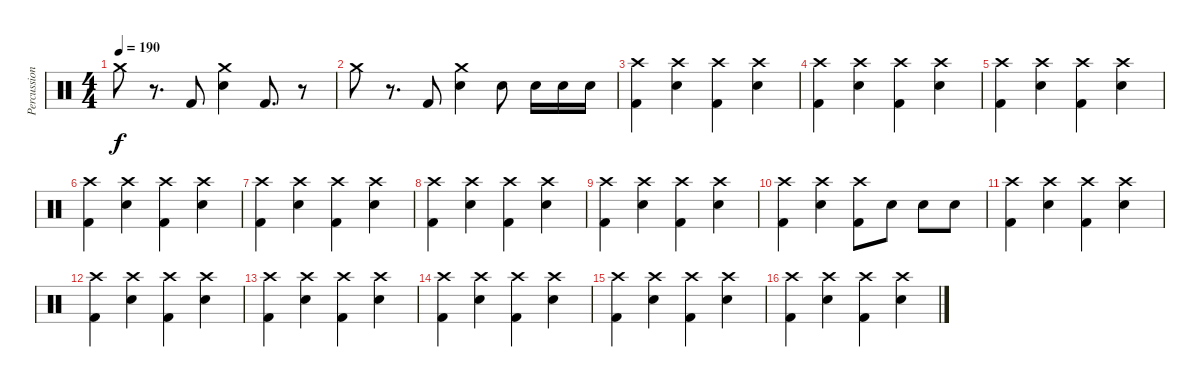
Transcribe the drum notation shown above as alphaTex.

\track ("Percussions" "Percussion") {instrument percussion}
\staff {score}
\articulation defaults
\ts (4 4)
\tempo 190
\clef neutral
\ks c "Crash medium (hit)".8{dy f}
r.8{d} "Kick (hit) 2".8 ("Crash medium (hit)" "Electric Snare (hit)").4 "Kick (hit) 2".8{d} r.8 |
"Crash medium (hit)".8 r.8{d} "Kick (hit) 2".8 ("Crash medium (hit)" "Electric Snare (hit)").4 "Electric Snare (hit)".8 "Electric Snare (hit)".16 "Electric Snare (hit)".16 "Electric Snare (hit)".16 |
("Crash high (hit)" "Kick (hit) 2").4 ("Crash high (hit)" "Electric Snare (hit)").4 ("Crash high (hit)" "Kick (hit) 2").4 ("Crash high (hit)" "Electric Snare (hit)").4 |
("Crash high (hit)" "Kick (hit) 2").4 ("Crash high (hit)" "Electric Snare (hit)").4 ("Crash high (hit)" "Kick (hit) 2").4 ("Crash high (hit)" "Electric Snare (hit)").4 |
("Crash high (hit)" "Kick (hit) 2").4 ("Crash high (hit)" "Electric Snare (hit)").4 ("Crash high (hit)" "Kick (hit) 2").4 ("Crash high (hit)" "Electric Snare (hit)").4 |
("Crash high (hit)" "Kick (hit) 2").4 ("Crash high (hit)" "Electric Snare (hit)").4 ("Crash high (hit)" "Kick (hit) 2").4 ("Crash high (hit)" "Electric Snare (hit)").4 |
("Crash high (hit)" "Kick (hit) 2").4 ("Crash high (hit)" "Electric Snare (hit)").4 ("Crash high (hit)" "Kick (hit) 2").4 ("Crash high (hit)" "Electric Snare (hit)").4 |
("Crash high (hit)" "Kick (hit) 2").4 ("Crash high (hit)" "Electric Snare (hit)").4 ("Crash high (hit)" "Kick (hit) 2").4 ("Crash high (hit)" "Electric Snare (hit)").4 |
("Crash high (hit)" "Kick (hit) 2").4 ("Crash high (hit)" "Electric Snare (hit)").4 ("Crash high (hit)" "Kick (hit) 2").4 ("Crash high (hit)" "Electric Snare (hit)").4 |
("Crash high (hit)" "Kick (hit) 2").4 ("Crash high (hit)" "Electric Snare (hit)").4 ("Crash high (hit)" "Kick (hit) 2").8 "Electric Snare (hit)".8 "Electric Snare (hit)".8 "Electric Snare (hit)".8 |
("Crash high (hit)" "Kick (hit) 2").4 ("Crash high (hit)" "Electric Snare (hit)").4 ("Crash high (hit)" "Kick (hit) 2").4 ("Crash high (hit)" "Electric Snare (hit)").4 |
("Crash high (hit)" "Kick (hit) 2").4 ("Crash high (hit)" "Electric Snare (hit)").4 ("Crash high (hit)" "Kick (hit) 2").4 ("Crash high (hit)" "Electric Snare (hit)").4 |
("Crash high (hit)" "Kick (hit) 2").4 ("Crash high (hit)" "Electric Snare (hit)").4 ("Crash high (hit)" "Kick (hit) 2").4 ("Crash high (hit)" "Electric Snare (hit)").4 |
("Crash high (hit)" "Kick (hit) 2").4 ("Crash high (hit)" "Electric Snare (hit)").4 ("Crash high (hit)" "Kick (hit) 2").4 ("Crash high (hit)" "Electric Snare (hit)").4 |
("Crash high (hit)" "Kick (hit) 2").4 ("Crash high (hit)" "Electric Snare (hit)").4 ("Crash high (hit)" "Kick (hit) 2").4 ("Crash high (hit)" "Electric Snare (hit)").4 |
("Crash high (hit)" "Kick (hit) 2").4 ("Crash high (hit)" "Electric Snare (hit)").4 ("Crash high (hit)" "Kick (hit) 2").4 ("Crash high (hit)" "Electric Snare (hit)").4
